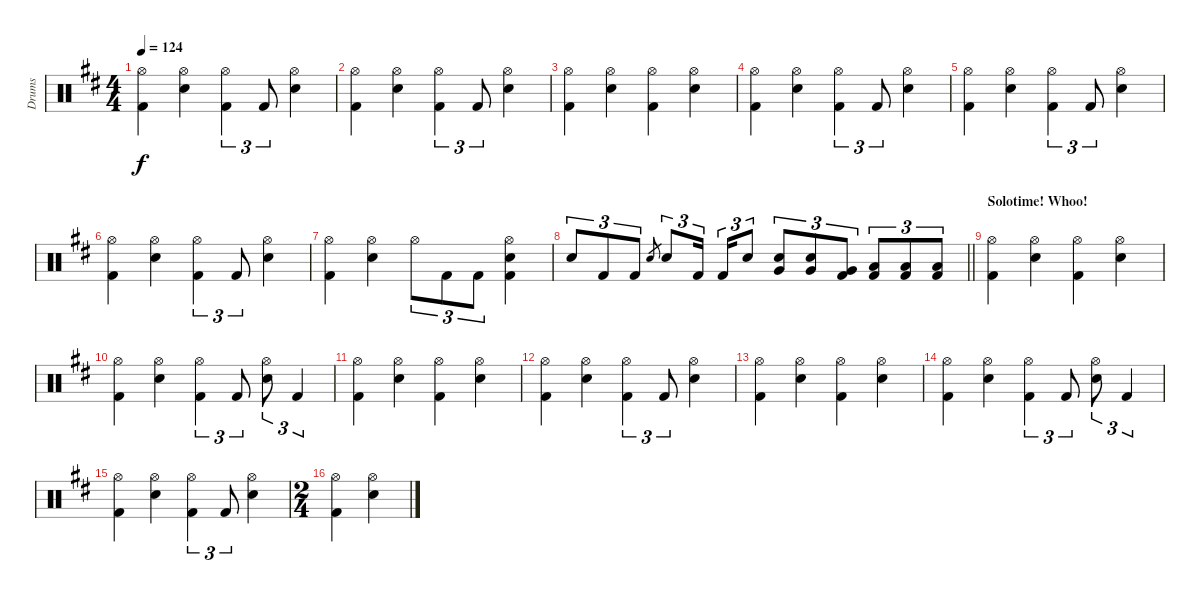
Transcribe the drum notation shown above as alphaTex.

\track ("Drums" "Drums") {instrument percussion}
\staff {score}
\articulation defaults
\ts (4 4)
\tempo 124
\clef neutral
\ks d
("Hi-Hat (open)" "Kick (hit) 2").4{dy f} ("Hi-Hat (open)" "Electric Snare (hit)").4 ("Hi-Hat (open)" "Kick (hit) 2").4{tu (3 2)} "Kick (hit) 2".8{tu (3 2)} ("Hi-Hat (open)" "Electric Snare (hit)").4 |
("Hi-Hat (open)" "Kick (hit) 2").4 ("Hi-Hat (open)" "Electric Snare (hit)").4 ("Hi-Hat (open)" "Kick (hit) 2").4{tu (3 2)} "Kick (hit) 2".8{tu (3 2)} ("Hi-Hat (open)" "Electric Snare (hit)").4 |
("Hi-Hat (open)" "Kick (hit) 2").4 ("Hi-Hat (open)" "Electric Snare (hit)").4 ("Hi-Hat (open)" "Kick (hit) 2").4 ("Hi-Hat (open)" "Electric Snare (hit)").4 |
("Hi-Hat (open)" "Kick (hit) 2").4 ("Hi-Hat (open)" "Electric Snare (hit)").4 ("Hi-Hat (open)" "Kick (hit) 2").4{tu (3 2)} "Kick (hit) 2".8{tu (3 2)} ("Hi-Hat (open)" "Electric Snare (hit)").4 |
("Hi-Hat (open)" "Kick (hit) 2").4 ("Hi-Hat (open)" "Electric Snare (hit)").4 ("Hi-Hat (open)" "Kick (hit) 2").4{tu (3 2)} "Kick (hit) 2".8{tu (3 2)} ("Hi-Hat (open)" "Electric Snare (hit)").4 |
("Hi-Hat (open)" "Kick (hit) 2").4 ("Hi-Hat (open)" "Electric Snare (hit)").4 ("Hi-Hat (open)" "Kick (hit) 2").4{tu (3 2)} "Kick (hit) 2".8{tu (3 2)} ("Hi-Hat (open)" "Electric Snare (hit)").4 |
("Hi-Hat (open)" "Kick (hit) 2").4 ("Hi-Hat (open)" "Electric Snare (hit)").4 "Hi-Hat (open)".8{tu (3 2)} "Kick (hit) 2".8{tu (3 2)} "Kick (hit) 2".8{tu (3 2)} ("Hi-Hat (open)" "Electric Snare (hit)" "Kick (hit) 2").4 |
\barLineRight lightlight "Electric Snare (hit)".8{tu (3 2)} "Kick (hit) 2".8{tu (3 2)} "Kick (hit) 2".8{tu (3 2)} "Snare (hit) 2".8{gr} "Electric Snare (hit)".8{tu (3 2)} "Kick (hit) 2".16{tu (3 2) beam splitsecondary} "Kick (hit) 2".16{tu (3 2)} "Electric Snare (hit)".8{tu (3 2)}
("Electric Snare (hit)" "Very Low Tom (hit)").8{tu (3 2)} ("Electric Snare (hit)" "Very Low Tom (hit)").8{tu (3 2)} ("Very Low Tom (hit)" "Kick (hit) 2").8{tu (3 2)} ("Low Floor Tom (hit)" "Kick (hit) 2").8{tu (3 2)} ("Low Floor Tom (hit)" "Kick (hit) 2").8{tu (3 2)} ("Low Floor Tom (hit)" "Kick (hit) 2").8{tu (3 2)} |
\section ("" "Solotime! Whoo!")
("Hi-Hat (open)" "Kick (hit) 2").4 ("Hi-Hat (open)" "Electric Snare (hit)").4 ("Hi-Hat (open)" "Kick (hit) 2").4 ("Hi-Hat (open)" "Electric Snare (hit)").4 |
("Hi-Hat (open)" "Kick (hit) 2").4 ("Hi-Hat (open)" "Electric Snare (hit)").4 ("Hi-Hat (open)" "Kick (hit) 2").4{tu (3 2)} "Kick (hit) 2".8{tu (3 2)} ("Hi-Hat (open)" "Electric Snare (hit)").8{tu (3 2)} "Kick (hit) 2".4{tu (3 2)} |
("Hi-Hat (open)" "Kick (hit) 2").4 ("Hi-Hat (open)" "Electric Snare (hit)").4 ("Hi-Hat (open)" "Kick (hit) 2").4 ("Hi-Hat (open)" "Electric Snare (hit)").4 |
("Hi-Hat (open)" "Kick (hit) 2").4 ("Hi-Hat (open)" "Electric Snare (hit)").4 ("Hi-Hat (open)" "Kick (hit) 2").4{tu (3 2)} "Kick (hit) 2".8{tu (3 2)} ("Hi-Hat (open)" "Electric Snare (hit)").4 |
("Hi-Hat (open)" "Kick (hit) 2").4 ("Hi-Hat (open)" "Electric Snare (hit)").4 ("Hi-Hat (open)" "Kick (hit) 2").4 ("Hi-Hat (open)" "Electric Snare (hit)").4 |
("Hi-Hat (open)" "Kick (hit) 2").4 ("Hi-Hat (open)" "Electric Snare (hit)").4 ("Hi-Hat (open)" "Kick (hit) 2").4{tu (3 2)} "Kick (hit) 2".8{tu (3 2)} ("Hi-Hat (open)" "Electric Snare (hit)").8{tu (3 2)} "Kick (hit) 2".4{tu (3 2)} |
("Hi-Hat (open)" "Kick (hit) 2").4 ("Hi-Hat (open)" "Electric Snare (hit)").4 ("Hi-Hat (open)" "Kick (hit) 2").4{tu (3 2)} "Kick (hit) 2".8{tu (3 2)} ("Hi-Hat (open)" "Electric Snare (hit)").4 |
\ts (2 4)
("Hi-Hat (open)" "Kick (hit) 2").4 ("Hi-Hat (open)" "Electric Snare (hit)").4
